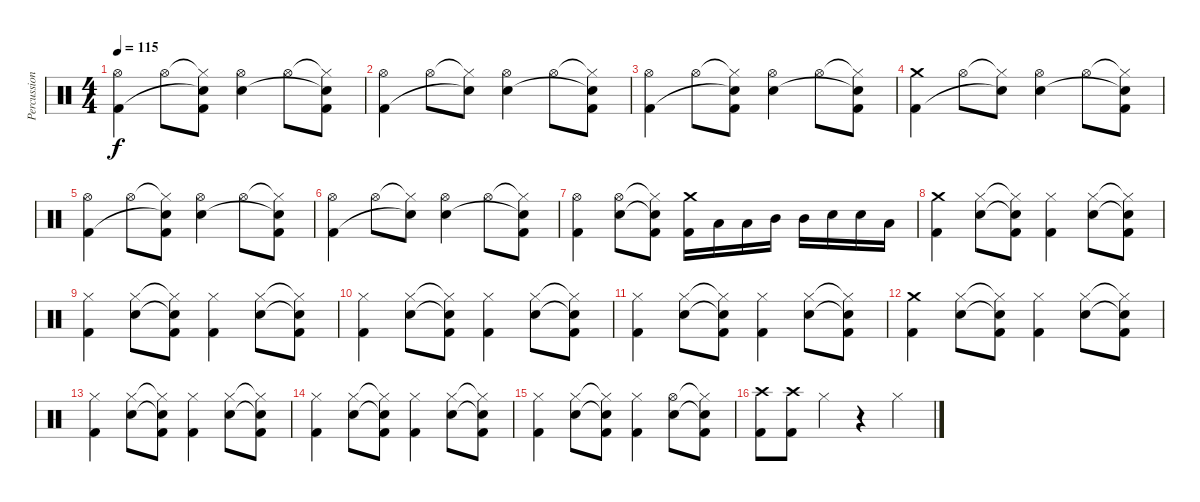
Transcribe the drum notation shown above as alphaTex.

\track ("Percussion" "Percussion") {instrument percussion}
\staff {score}
\articulation defaults
\ts (4 4)
\tempo 115
\clef neutral
\ks c
("Hi-Hat (open)" "Kick (hit) 2").4{dy f} "Hi-Hat (open)".8 ("Hi-Hat (closed)"{t} "Snare (hit) 2"{t} "Kick (hit) 2").8 ("Hi-Hat (open)" "Snare (hit) 2").4 "Hi-Hat (open)".8 ("Hi-Hat (closed)"{t} "Snare (hit) 2"{t} "Kick (hit) 2").8 |
("Hi-Hat (open)" "Kick (hit) 2").4 "Hi-Hat (open)".8 ("Hi-Hat (closed)"{t} "Snare (hit) 2"{t}).8 ("Hi-Hat (open)" "Snare (hit) 2").4 "Hi-Hat (open)".8 ("Hi-Hat (closed)"{t} "Snare (hit) 2"{t} "Kick (hit) 2").8 |
("Hi-Hat (open)" "Kick (hit) 2").4 "Hi-Hat (open)".8 ("Hi-Hat (closed)"{t} "Snare (hit) 2"{t} "Kick (hit) 2").8 ("Hi-Hat (open)" "Snare (hit) 2").4 "Hi-Hat (open)".8 ("Hi-Hat (closed)"{t} "Snare (hit) 2"{t} "Kick (hit) 2").8 |
("Crash medium (hit)" "Kick (hit) 2").4 "Hi-Hat (open)".8 ("Hi-Hat (closed)"{t} "Snare (hit) 2"{t}).8 ("Hi-Hat (open)" "Snare (hit) 2").4 "Hi-Hat (open)".8 ("Hi-Hat (closed)"{t} "Snare (hit) 2"{t} "Kick (hit) 2").8 |
("Hi-Hat (open)" "Kick (hit) 2").4 "Hi-Hat (open)".8 ("Hi-Hat (closed)"{t} "Snare (hit) 2"{t} "Kick (hit) 2").8 ("Hi-Hat (open)" "Snare (hit) 2").4 "Hi-Hat (open)".8 ("Hi-Hat (closed)"{t} "Snare (hit) 2"{t} "Kick (hit) 2").8 |
("Hi-Hat (open)" "Kick (hit) 2").4 "Hi-Hat (open)".8 ("Hi-Hat (closed)"{t} "Snare (hit) 2"{t}).8 ("Hi-Hat (open)" "Snare (hit) 2").4 "Hi-Hat (open)".8 ("Hi-Hat (closed)"{t} "Snare (hit) 2"{t} "Kick (hit) 2").8 |
("Hi-Hat (open)" "Kick (hit) 2").4 ("Hi-Hat (open)" "Snare (hit) 2").8 ("Hi-Hat (closed)"{t} "Snare (hit) 2"{t} "Kick (hit) 2").8 ("Crash medium (hit)" "Kick (hit) 2").16 "Low Tom (hit)".16 "Low Tom (hit)".16 "Mid Tom (hit)".16 "Mid Tom (hit)".16 "Snare (hit) 2".16 "Snare (hit) 2".16 "Low Tom (hit)".16 |
("Crash medium (hit)" "Kick (hit) 2").4 ("Hi-Hat (closed)" "Snare (hit) 2").8 ("Hi-Hat (closed)"{t} "Snare (hit) 2"{t} "Kick (hit) 2").8 ("Hi-Hat (closed)" "Kick (hit) 2").4 ("Hi-Hat (closed)" "Snare (hit) 2").8 ("Hi-Hat (closed)"{t} "Snare (hit) 2"{t} "Kick (hit) 2").8 |
("Hi-Hat (closed)" "Kick (hit) 2").4 ("Hi-Hat (closed)" "Snare (hit) 2").8 ("Hi-Hat (closed)"{t} "Snare (hit) 2"{t} "Kick (hit) 2").8 ("Hi-Hat (closed)" "Kick (hit) 2").4 ("Hi-Hat (closed)" "Snare (hit) 2").8 ("Hi-Hat (closed)"{t} "Snare (hit) 2"{t} "Kick (hit) 2").8 |
("Hi-Hat (closed)" "Kick (hit) 2").4 ("Hi-Hat (closed)" "Snare (hit) 2").8 ("Hi-Hat (closed)"{t} "Snare (hit) 2"{t} "Kick (hit) 2").8 ("Hi-Hat (closed)" "Kick (hit) 2").4 ("Hi-Hat (closed)" "Snare (hit) 2").8 ("Hi-Hat (closed)"{t} "Snare (hit) 2"{t} "Kick (hit) 2").8 |
("Hi-Hat (closed)" "Kick (hit) 2").4 ("Hi-Hat (closed)" "Snare (hit) 2").8 ("Hi-Hat (closed)"{t} "Snare (hit) 2"{t} "Kick (hit) 2").8 ("Hi-Hat (closed)" "Kick (hit) 2").4 ("Hi-Hat (closed)" "Snare (hit) 2").8 ("Hi-Hat (closed)"{t} "Snare (hit) 2"{t} "Kick (hit) 2").8 |
("Crash medium (hit)" "Kick (hit) 2").4 ("Hi-Hat (closed)" "Snare (hit) 2").8 ("Hi-Hat (closed)"{t} "Snare (hit) 2"{t} "Kick (hit) 2").8 ("Hi-Hat (closed)" "Kick (hit) 2").4 ("Hi-Hat (closed)" "Snare (hit) 2").8 ("Hi-Hat (closed)"{t} "Snare (hit) 2"{t} "Kick (hit) 2").8 |
("Hi-Hat (closed)" "Kick (hit) 2").4 ("Hi-Hat (closed)" "Snare (hit) 2").8 ("Hi-Hat (closed)"{t} "Snare (hit) 2"{t} "Kick (hit) 2").8 ("Hi-Hat (closed)" "Kick (hit) 2").4 ("Hi-Hat (closed)" "Snare (hit) 2").8 ("Hi-Hat (closed)"{t} "Snare (hit) 2"{t} "Kick (hit) 2").8 |
("Hi-Hat (closed)" "Kick (hit) 2").4 ("Hi-Hat (closed)" "Snare (hit) 2").8 ("Hi-Hat (closed)"{t} "Snare (hit) 2"{t} "Kick (hit) 2").8 ("Hi-Hat (closed)" "Kick (hit) 2").4 ("Hi-Hat (closed)" "Snare (hit) 2").8 ("Hi-Hat (closed)"{t} "Snare (hit) 2"{t} "Kick (hit) 2").8 |
("Hi-Hat (closed)" "Kick (hit) 2").4 ("Hi-Hat (closed)" "Snare (hit) 2").8 ("Hi-Hat (closed)"{t} "Snare (hit) 2"{t} "Kick (hit) 2").8 ("Hi-Hat (closed)" "Kick (hit) 2").4 ("Hi-Hat (open)" "Snare (hit) 2").8 ("Hi-Hat (closed)"{t} "Snare (hit) 2"{t} "Kick (hit) 2").8 |
("Crash high (hit)" "Kick (hit) 2").8 ("Crash high (hit)" "Kick (hit) 2").8 "Hi-Hat (closed)".4 r.4 "Hi-Hat (closed)".4
